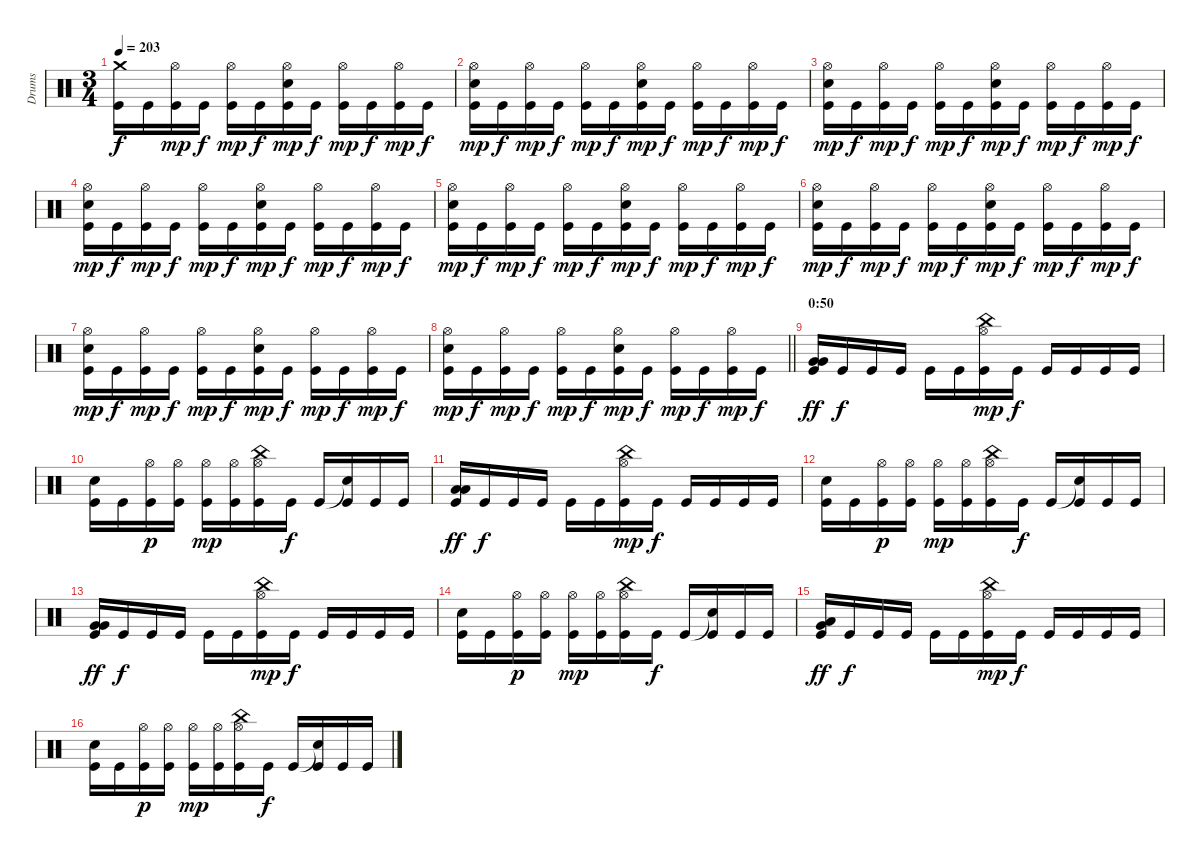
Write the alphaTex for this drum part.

\track ("Drums" "Drums") {instrument percussion}
\staff {score}
\articulation defaults
\ts (3 4)
\tempo 203
\clef neutral
\ks c
("Crash medium (hit)" "Kick (hit)").16{dy f} "Kick (hit)".16 ("Hi-Hat (open)" "Kick (hit)").16{dy mp} "Kick (hit)".16{dy f} ("Hi-Hat (open)" "Kick (hit)").16{dy mp} "Kick (hit)".16{dy f} ("Hi-Hat (open)" "Electric Snare (hit)" "Kick (hit)").16{dy mp} "Kick (hit)".16{dy f} ("Hi-Hat (open)" "Kick (hit)").16{dy mp} "Kick (hit)".16{dy f} ("Hi-Hat (open)" "Kick (hit)").16{dy mp} "Kick (hit)".16{dy f} |
("Hi-Hat (open)" "Electric Snare (hit)" "Kick (hit)").16{dy mp} "Kick (hit)".16{dy f} ("Hi-Hat (open)" "Kick (hit)").16{dy mp} "Kick (hit)".16{dy f} ("Hi-Hat (open)" "Kick (hit)").16{dy mp} "Kick (hit)".16{dy f} ("Hi-Hat (open)" "Electric Snare (hit)" "Kick (hit)").16{dy mp} "Kick (hit)".16{dy f} ("Hi-Hat (open)" "Kick (hit)").16{dy mp} "Kick (hit)".16{dy f} ("Hi-Hat (open)" "Kick (hit)").16{dy mp} "Kick (hit)".16{dy f} |
("Hi-Hat (open)" "Electric Snare (hit)" "Kick (hit)").16{dy mp} "Kick (hit)".16{dy f} ("Hi-Hat (open)" "Kick (hit)").16{dy mp} "Kick (hit)".16{dy f} ("Hi-Hat (open)" "Kick (hit)").16{dy mp} "Kick (hit)".16{dy f} ("Hi-Hat (open)" "Electric Snare (hit)" "Kick (hit)").16{dy mp} "Kick (hit)".16{dy f} ("Hi-Hat (open)" "Kick (hit)").16{dy mp} "Kick (hit)".16{dy f} ("Hi-Hat (open)" "Kick (hit)").16{dy mp} "Kick (hit)".16{dy f} |
("Hi-Hat (open)" "Electric Snare (hit)" "Kick (hit)").16{dy mp} "Kick (hit)".16{dy f} ("Hi-Hat (open)" "Kick (hit)").16{dy mp} "Kick (hit)".16{dy f} ("Hi-Hat (open)" "Kick (hit)").16{dy mp} "Kick (hit)".16{dy f} ("Hi-Hat (open)" "Electric Snare (hit)" "Kick (hit)").16{dy mp} "Kick (hit)".16{dy f} ("Hi-Hat (open)" "Kick (hit)").16{dy mp} "Kick (hit)".16{dy f} ("Hi-Hat (open)" "Kick (hit)").16{dy mp} "Kick (hit)".16{dy f} |
("Hi-Hat (open)" "Electric Snare (hit)" "Kick (hit)").16{dy mp} "Kick (hit)".16{dy f} ("Hi-Hat (open)" "Kick (hit)").16{dy mp} "Kick (hit)".16{dy f} ("Hi-Hat (open)" "Kick (hit)").16{dy mp} "Kick (hit)".16{dy f} ("Hi-Hat (open)" "Electric Snare (hit)" "Kick (hit)").16{dy mp} "Kick (hit)".16{dy f} ("Hi-Hat (open)" "Kick (hit)").16{dy mp} "Kick (hit)".16{dy f} ("Hi-Hat (open)" "Kick (hit)").16{dy mp} "Kick (hit)".16{dy f} |
("Hi-Hat (open)" "Electric Snare (hit)" "Kick (hit)").16{dy mp} "Kick (hit)".16{dy f} ("Hi-Hat (open)" "Kick (hit)").16{dy mp} "Kick (hit)".16{dy f} ("Hi-Hat (open)" "Kick (hit)").16{dy mp} "Kick (hit)".16{dy f} ("Hi-Hat (open)" "Electric Snare (hit)" "Kick (hit)").16{dy mp} "Kick (hit)".16{dy f} ("Hi-Hat (open)" "Kick (hit)").16{dy mp} "Kick (hit)".16{dy f} ("Hi-Hat (open)" "Kick (hit)").16{dy mp} "Kick (hit)".16{dy f} |
("Hi-Hat (open)" "Electric Snare (hit)" "Kick (hit)").16{dy mp} "Kick (hit)".16{dy f} ("Hi-Hat (open)" "Kick (hit)").16{dy mp} "Kick (hit)".16{dy f} ("Hi-Hat (open)" "Kick (hit)").16{dy mp} "Kick (hit)".16{dy f} ("Hi-Hat (open)" "Electric Snare (hit)" "Kick (hit)").16{dy mp} "Kick (hit)".16{dy f} ("Hi-Hat (open)" "Kick (hit)").16{dy mp} "Kick (hit)".16{dy f} ("Hi-Hat (open)" "Kick (hit)").16{dy mp} "Kick (hit)".16{dy f} |
\barLineRight lightlight
("Hi-Hat (open)" "Electric Snare (hit)" "Kick (hit)").16{dy mp} "Kick (hit)".16{dy f} ("Hi-Hat (open)" "Kick (hit)").16{dy mp} "Kick (hit)".16{dy f} ("Hi-Hat (open)" "Kick (hit)").16{dy mp} "Kick (hit)".16{dy f} ("Hi-Hat (open)" "Electric Snare (hit)" "Kick (hit)").16{dy mp} "Kick (hit)".16{dy f} ("Hi-Hat (open)" "Kick (hit)").16{dy mp} "Kick (hit)".16{dy f} ("Hi-Hat (open)" "Kick (hit)").16{dy mp} "Kick (hit)".16{dy f} |
\section ("" "0:50")
("Very Low Tom (hit)" "Very Low Tom (hit)" "Kick (hit)").16{dy ff} "Kick (hit)".16{dy f} "Kick (hit)".16 "Kick (hit)".16 "Kick (hit)".16 "Kick (hit)".16 ("China (hit)" "Hi-Hat (open)" "Kick (hit)").16{dy mp} "Kick (hit)".16{dy f} "Kick (hit)".16 "Kick (hit)".16 "Kick (hit)".16 "Kick (hit)".16 |
("Electric Snare (hit)" "Kick (hit)").16 "Kick (hit)".16 ("Hi-Hat (open)" "Kick (hit)").16{dy p} ("Hi-Hat (open)" "Kick (hit)").16 ("Hi-Hat (open)" "Kick (hit)").16{dy mp} ("Hi-Hat (open)" "Kick (hit)").16 ("China (hit)" "Hi-Hat (open)" "Kick (hit)").16 "Kick (hit)".16{dy f} "Kick (hit)".16 ("Snare (hit)"{t} "Kick (hit)").16 "Kick (hit)".16 "Kick (hit)".16 |
("Low Floor Tom (hit)" "Low Floor Tom (hit)" "Kick (hit)").16{dy ff} "Kick (hit)".16{dy f} "Kick (hit)".16 "Kick (hit)".16 "Kick (hit)".16 "Kick (hit)".16 ("China (hit)" "Hi-Hat (open)" "Kick (hit)").16{dy mp} "Kick (hit)".16{dy f} "Kick (hit)".16 "Kick (hit)".16 "Kick (hit)".16 "Kick (hit)".16 |
("Electric Snare (hit)" "Kick (hit)").16 "Kick (hit)".16 ("Hi-Hat (open)" "Kick (hit)").16{dy p} ("Hi-Hat (open)" "Kick (hit)").16 ("Hi-Hat (open)" "Kick (hit)").16{dy mp} ("Hi-Hat (open)" "Kick (hit)").16 ("China (hit)" "Hi-Hat (open)" "Kick (hit)").16 "Kick (hit)".16{dy f} "Kick (hit)".16 ("Snare (hit)"{t} "Kick (hit)").16 "Kick (hit)".16 "Kick (hit)".16 |
("Very Low Tom (hit)" "Very Low Tom (hit)" "Kick (hit)").16{dy ff} "Kick (hit)".16{dy f} "Kick (hit)".16 "Kick (hit)".16 "Kick (hit)".16 "Kick (hit)".16 ("China (hit)" "Hi-Hat (open)" "Kick (hit)").16{dy mp} "Kick (hit)".16{dy f} "Kick (hit)".16 "Kick (hit)".16 "Kick (hit)".16 "Kick (hit)".16 |
("Electric Snare (hit)" "Kick (hit)").16 "Kick (hit)".16 ("Hi-Hat (open)" "Kick (hit)").16{dy p} ("Hi-Hat (open)" "Kick (hit)").16 ("Hi-Hat (open)" "Kick (hit)").16{dy mp} ("Hi-Hat (open)" "Kick (hit)").16 ("China (hit)" "Hi-Hat (open)" "Kick (hit)").16 "Kick (hit)".16{dy f} "Kick (hit)".16 ("Snare (hit)"{t} "Kick (hit)").16 "Kick (hit)".16 "Kick (hit)".16 |
("Very Low Tom (hit)" "Low Floor Tom (hit)" "Kick (hit)").16{dy ff} "Kick (hit)".16{dy f} "Kick (hit)".16 "Kick (hit)".16 "Kick (hit)".16 "Kick (hit)".16 ("China (hit)" "Hi-Hat (open)" "Kick (hit)").16{dy mp} "Kick (hit)".16{dy f} "Kick (hit)".16 "Kick (hit)".16 "Kick (hit)".16 "Kick (hit)".16 |
("Electric Snare (hit)" "Kick (hit)").16 "Kick (hit)".16 ("Hi-Hat (open)" "Kick (hit)").16{dy p} ("Hi-Hat (open)" "Kick (hit)").16 ("Hi-Hat (open)" "Kick (hit)").16{dy mp} ("Hi-Hat (open)" "Kick (hit)").16 ("China (hit)" "Hi-Hat (open)" "Kick (hit)").16 "Kick (hit)".16{dy f} "Kick (hit)".16 ("Snare (hit)"{t} "Kick (hit)").16 "Kick (hit)".16 "Kick (hit)".16
